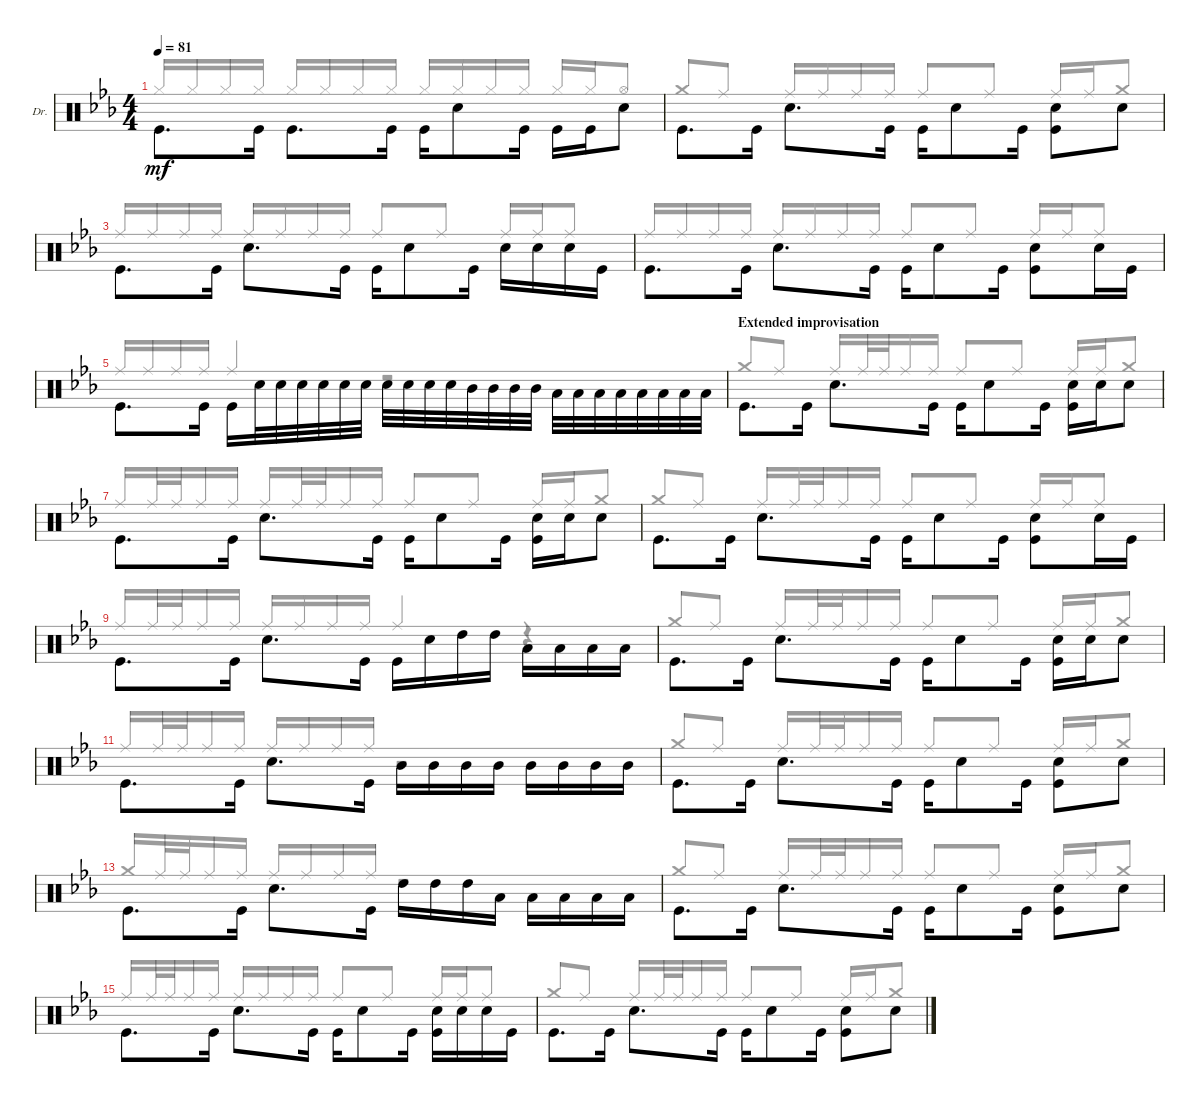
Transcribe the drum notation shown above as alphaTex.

\bracketExtendMode groupsimilarinstruments
\firstSystemTrackNameOrientation horizontal
\otherSystemsTrackNameOrientation horizontal
\defaultBarNumberDisplay FirstOfSystem
\track ("Drums" "Dr.") {multiBarRest instrument percussion}
\staff {score}
\articulation defaults
\voice
\ts (4 4)
\tempo 81
\clef neutral
\ks eb "Kick (hit)".8{d dy mf beam invert} "Kick (hit)".16 "Kick (hit)".8{d beam invert} "Kick (hit)".16 "Kick (hit)".16 "Snare (hit) 2".8{beam invert} "Kick (hit)".16 "Kick (hit)".16 "Kick (hit)".16{beam invert} "Snare (hit) 2".8
|
"Kick (hit)".8{d} "Kick (hit)".16{beam invert} "Snare (hit) 2".8{d} "Kick (hit)".16{beam invert} "Kick (hit)".16 "Snare (hit) 2".8{beam invert} "Kick (hit)".16 ("Snare (hit) 2" "Kick (hit)").8 "Snare (hit) 2".8{beam invert} |
"Kick (hit)".8{d} "Kick (hit)".16{beam invert} "Snare (hit) 2".8{d} "Kick (hit)".16{beam invert} "Kick (hit)".16 "Snare (hit) 2".8{beam invert} "Kick (hit)".16 "Snare (hit) 2".16{beam invert} "Snare (hit) 2".16 "Snare (hit) 2".16 "Kick (hit)".16 |
"Kick (hit)".8{d beam invert} "Kick (hit)".16 "Snare (hit) 2".8{d beam invert} "Kick (hit)".16 "Kick (hit)".16 "Snare (hit) 2".8{beam invert} "Kick (hit)".16 ("Kick (hit)" "Snare (hit) 2").8 "Snare (hit) 2".16{beam invert} "Kick (hit)".16 |
"Kick (hit)".8{d beam invert} "Kick (hit)".16 "Kick (hit)".16{beam invert} "Snare (hit) 2".32 "Snare (hit) 2".32 "Snare (hit) 2".32 "Snare (hit) 2".32 "Snare (hit) 2".32 "Snare (hit) 2".32 "Snare (hit) 2".32 "Snare (hit) 2".32{beam invert} "Snare (hit) 2".32 "Snare (hit) 2".32{beam invert} "Mid Tom (hit)".32 "Mid Tom (hit)".32 "Mid Tom (hit)".32{beam invert} "Mid Tom (hit)".32 "Low Tom (hit)".32 "Low Tom (hit)".32{beam invert} "Low Tom (hit)".32 "Low Tom (hit)".32 "Low Tom (hit)".32{beam invert} "Low Tom (hit)".32 "Low Tom (hit)".32 "Low Tom (hit)".32{beam invert} |
\section ("" "Extended improvisation")
"Kick (hit)".8{d} "Kick (hit)".16{beam invert} "Snare (hit) 2".8{d} "Kick (hit)".16{beam invert} "Kick (hit)".16 "Snare (hit) 2".8 "Kick (hit)".16{beam invert} ("Kick (hit)" "Snare (hit) 2").16 "Snare (hit) 2".16{beam invert} "Snare (hit) 2".8 |
"Kick (hit)".8{d beam invert} "Kick (hit)".16 "Snare (hit) 2".8{d beam invert} "Kick (hit)".16 "Kick (hit)".16{beam invert} "Snare (hit) 2".8 "Kick (hit)".16 ("Kick (hit)" "Snare (hit) 2").16{beam invert} "Snare (hit) 2".16 "Snare (hit) 2".8 |
"Kick (hit)".8{d} "Kick (hit)".16{beam invert} "Snare (hit) 2".8{d beam invert} "Kick (hit)".16 "Kick (hit)".16 "Snare (hit) 2".8{beam invert} "Kick (hit)".16 ("Kick (hit)" "Snare (hit) 2").8 "Snare (hit) 2".16 "Kick (hit)".16{beam invert} |
"Kick (hit)".8{d beam invert} "Kick (hit)".16 "Snare (hit) 2".8{d} "Kick (hit)".16{beam invert} "Kick (hit)".16{beam invert} "Snare (hit) 2".16 "High Tom (hit)".16 "High Tom (hit)".16 "Low Tom (hit)".16 "Low Tom (hit)".16 "Low Tom (hit)".16{beam invert} "Low Tom (hit)".16 |
"Kick (hit)".8{d} "Kick (hit)".16{beam invert} "Snare (hit) 2".8{d beam invert} "Kick (hit)".16 "Kick (hit)".16{beam invert} "Snare (hit) 2".8 "Kick (hit)".16 ("Kick (hit)" "Snare (hit) 2").16{beam invert} "Snare (hit) 2".16 "Snare (hit) 2".8 |
"Kick (hit)".8{d beam invert} "Kick (hit)".16 "Snare (hit) 2".8{d beam invert} "Kick (hit)".16 "Mid Tom (hit)".16 "Mid Tom (hit)".16 "Mid Tom (hit)".16{beam invert} "Mid Tom (hit)".16 "Mid Tom (hit)".16{beam invert} "Mid Tom (hit)".16 "Mid Tom (hit)".16 "Mid Tom (hit)".16 |
"Kick (hit)".8{d beam invert} "Kick (hit)".16 "Snare (hit) 2".8{d beam invert} "Kick (hit)".16 "Kick (hit)".16{beam invert} "Snare (hit) 2".8 "Kick (hit)".16 ("Snare (hit) 2" "Kick (hit)").8{beam invert} "Snare (hit) 2".8 |
"Kick (hit)".8{d} "Kick (hit)".16{beam invert} "Snare (hit) 2".8{d beam invert} "Kick (hit)".16 "High Tom (hit)".16{beam invert} "High Tom (hit)".16 "High Tom (hit)".16 "Low Tom (hit)".16 "Low Tom (hit)".16 "Low Tom (hit)".16{beam invert} "Low Tom (hit)".16 "Low Tom (hit)".16 |
"Kick (hit)".8{d beam invert} "Kick (hit)".16 "Snare (hit) 2".8{d beam invert} "Kick (hit)".16 "Kick (hit)".16 "Snare (hit) 2".8{beam invert} "Kick (hit)".16 ("Snare (hit) 2" "Kick (hit)").8{beam invert} "Snare (hit) 2".8 |
"Kick (hit)".8{d beam invert} "Kick (hit)".16 "Snare (hit) 2".8{d beam invert} "Kick (hit)".16 "Kick (hit)".16{beam invert} "Snare (hit) 2".8 "Kick (hit)".16 ("Kick (hit)" "Snare (hit) 2").16{beam invert} "Snare (hit) 2".16 "Snare (hit) 2".16 "Kick (hit)".16 |
"Kick (hit)".8{d} "Kick (hit)".16{beam invert} "Snare (hit) 2".8{d beam invert} "Kick (hit)".16 "Kick (hit)".16{beam invert} "Snare (hit) 2".8 "Kick (hit)".16 ("Snare (hit) 2" "Kick (hit)").8{beam invert} "Snare (hit) 2".8
\voice
\clef neutral
\ottava regular
\simile none
\ks eb "Hi-Hat (closed)".16{dy mf beam invert} "Hi-Hat (closed)".16 "Hi-Hat (closed)".16 "Hi-Hat (closed)".16 "Hi-Hat (closed)".16 "Hi-Hat (closed)".16 "Hi-Hat (closed)".16{beam invert} "Hi-Hat (closed)".16 "Hi-Hat (closed)".16 "Hi-Hat (closed)".16 "Hi-Hat (closed)".16{beam invert} "Hi-Hat (closed)".16 "Hi-Hat (closed)".16 "Hi-Hat (closed)".16 "Hi-Hat (open)".8{beam invert}
|
"Crash medium (hit)".8{beam invert} "Ride (middle)".8 "Ride (middle)".16 "Ride (middle)".16{beam invert} "Ride (middle)".16 "Ride (middle)".16 "Ride (middle)".8 "Ride (middle)".8{beam invert} "Ride (middle)".16{beam invert} "Ride (middle)".16 "Crash medium (hit)".8 |
"Ride (middle)".16{beam invert} "Ride (middle)".16 "Ride (middle)".16 "Ride (middle)".16 "Ride (middle)".16{beam invert} "Ride (middle)".16 "Ride (middle)".16 "Ride (middle)".16 "Ride (middle)".8{beam invert} "Ride (middle)".8 "Ride (middle)".16 "Ride (middle)".16 "Ride (middle)".8{beam invert} |
"Ride (middle)".16 "Ride (middle)".16 "Ride (middle)".16 "Ride (middle)".16{beam invert} "Ride (middle)".16 "Ride (middle)".16 "Ride (middle)".16{beam invert} "Ride (middle)".16 "Ride (middle)".8 "Ride (middle)".8{beam invert} "Ride (middle)".16 "Ride (middle)".16 "Ride (middle)".8{beam invert} |
"Ride (middle)".16 "Ride (middle)".16 "Ride (middle)".16 "Ride (middle)".16{beam invert} "Ride (middle)".4{beam invert} r.2 |
"Crash medium (hit)".8 "Ride (middle)".8{beam invert} "Ride (middle)".16 "Ride (middle)".32 "Ride (middle)".32 "Ride (middle)".16{beam invert} "Ride (middle)".16 "Ride (middle)".8 "Ride (middle)".8{beam invert} "Ride (middle)".16 "Ride (middle)".16 "Crash medium (hit)".8{beam invert} |
"Ride (middle)".16 "Ride (middle)".32 "Ride (middle)".32{beam invert} "Ride (middle)".16 "Ride (middle)".16 "Ride (middle)".16 "Ride (middle)".32{beam invert} "Ride (middle)".32 "Ride (middle)".16 "Ride (middle)".16 "Ride (middle)".8{beam invert} "Ride (middle)".8 "Ride (middle)".16 "Ride (middle)".16 "Crash medium (hit)".8{beam invert} |
"Crash medium (hit)".8{beam invert} "Ride (middle)".8 "Ride (middle)".16{beam invert} "Ride (middle)".32 "Ride (middle)".32 "Ride (middle)".16 "Ride (middle)".16 "Ride (middle)".8 "Ride (middle)".8{beam invert} "Ride (middle)".16 "Ride (middle)".16 "Ride (middle)".8{beam invert} |
"Ride (middle)".16 "Ride (middle)".32 "Ride (middle)".32 "Ride (middle)".16{beam invert} "Ride (middle)".16 "Ride (middle)".16 "Ride (middle)".16 "Ride (middle)".16{beam invert} "Ride (middle)".16 "Ride (middle)".4{beam invert} r.4 |
"Crash medium (hit)".8{beam invert} "Ride (middle)".8 "Ride (middle)".16 "Ride (middle)".32 "Ride (middle)".32{beam invert} "Ride (middle)".16 "Ride (middle)".16 "Ride (middle)".8 "Ride (middle)".8{beam invert} "Ride (middle)".16{beam invert} "Ride (middle)".16 "Crash medium (hit)".8 |
"Ride (middle)".16{beam invert} "Ride (middle)".32 "Ride (middle)".32 "Ride (middle)".16 "Ride (middle)".16 "Ride (middle)".16 "Ride (middle)".16 "Ride (middle)".16 "Ride (middle)".16{beam invert} r.2 |
"Crash medium (hit)".8{beam invert} "Ride (middle)".8 "Ride (middle)".16{beam invert} "Ride (middle)".32 "Ride (middle)".32 "Ride (middle)".16 "Ride (middle)".16 "Ride (middle)".8 "Ride (middle)".8{beam invert} "Ride (middle)".16 "Ride (middle)".16 "Crash medium (hit)".8{beam invert} |
"Crash medium (hit)".16 "Ride (middle)".32{beam invert} "Ride (middle)".32 "Ride (middle)".16 "Ride (middle)".16 "Ride (middle)".16{beam invert} "Ride (middle)".16 "Ride (middle)".16 "Ride (middle)".16 r.2 |
"Crash medium (hit)".8{beam invert} "Ride (middle)".8 "Ride (middle)".16{beam invert} "Ride (middle)".32 "Ride (middle)".32 "Ride (middle)".16 "Ride (middle)".16 "Ride (middle)".8{beam invert} "Ride (middle)".8 "Ride (middle)".16 "Ride (middle)".16{beam invert} "Crash medium (hit)".8 |
"Ride (middle)".16{beam invert} "Ride (middle)".32 "Ride (middle)".32 "Ride (middle)".16 "Ride (middle)".16 "Ride (middle)".16 "Ride (middle)".16 "Ride (middle)".16{beam invert} "Ride (middle)".16 "Ride (middle)".8 "Ride (middle)".8{beam invert} "Ride (middle)".16 "Ride (middle)".16 "Ride (middle)".8{beam invert} |
"Crash medium (hit)".8{beam invert} "Ride (middle)".8 "Ride (middle)".16 "Ride (middle)".32{beam invert} "Ride (middle)".32 "Ride (middle)".16 "Ride (middle)".16 "Ride (middle)".8{beam invert} "Ride (middle)".8 "Ride (middle)".16{beam invert} "Ride (middle)".16 "Crash medium (hit)".8
